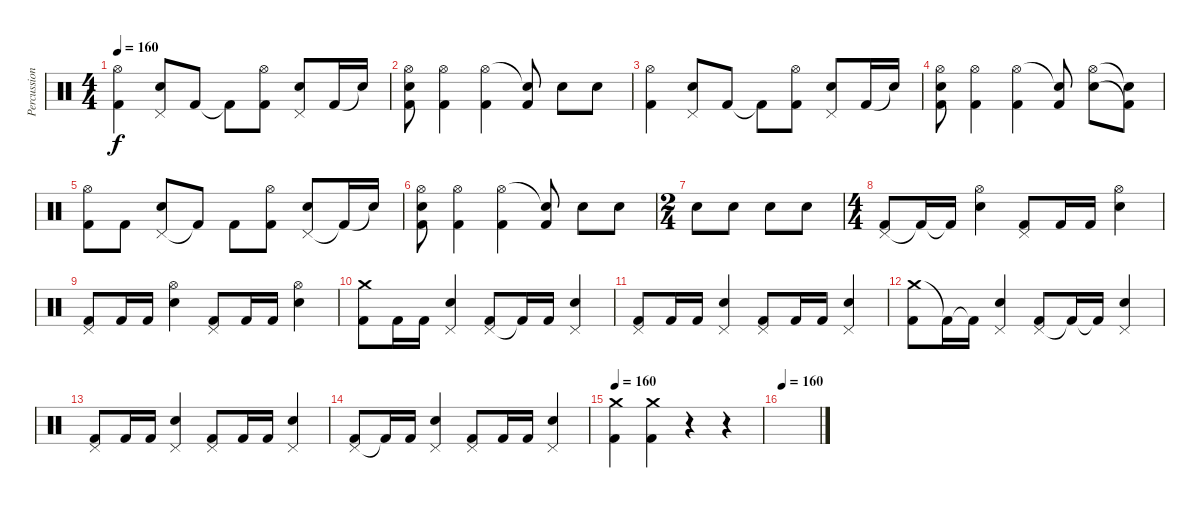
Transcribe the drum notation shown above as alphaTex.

\track ("Percussion" "Percussion") {instrument percussion}
\staff {score}
\articulation defaults
\ts (4 4)
\tempo 160
\clef neutral
\ks c
("Hi-Hat (open)" "Kick (hit) 2").4{dy f} ("Pedal Hi-Hat (hit)" "Snare (hit) 2").8 "Kick (hit) 2".8 "Kick (hit) 2"{t}.8 ("Hi-Hat (open)" "Kick (hit) 2").8 ("Pedal Hi-Hat (hit)" "Snare (hit) 2").8 "Kick (hit) 2".16 "Snare (hit)"{t}.16 |
("Kick (hit) 2" "Hi-Hat (open)" "Snare (hit) 2").8 ("Hi-Hat (open)" "Kick (hit) 2").4 ("Hi-Hat (open)" "Kick (hit) 2").4 ("Snare (hit)"{t} "Kick (hit) 2").8 "Snare (hit) 2".8 "Snare (hit) 2".8 |
("Hi-Hat (open)" "Kick (hit) 2").4 ("Pedal Hi-Hat (hit)" "Snare (hit) 2").8 "Kick (hit) 2".8 "Kick (hit) 2"{t}.8 ("Hi-Hat (open)" "Kick (hit) 2").8 ("Pedal Hi-Hat (hit)" "Snare (hit) 2").8 "Kick (hit) 2".16 "Snare (hit)"{t}.16 |
("Kick (hit) 2" "Hi-Hat (open)" "Snare (hit) 2").8 ("Hi-Hat (open)" "Kick (hit) 2").4 ("Hi-Hat (open)" "Kick (hit) 2").4 ("Snare (hit)"{t} "Kick (hit) 2").8 ("Hi-Hat (open)" "Snare (hit) 2").8 ("Snare (hit)"{t} "Kick (hit) 2"{t}).8 |
("Hi-Hat (open)" "Kick (hit) 2").8 "Kick (hit) 2".8 ("Pedal Hi-Hat (hit)" "Snare (hit) 2").8 "Kick (hit) 2"{t}.8 "Kick (hit) 2".8 ("Hi-Hat (open)" "Kick (hit) 2").8 ("Pedal Hi-Hat (hit)" "Snare (hit) 2").8 "Kick (hit) 2"{t}.16 "Snare (hit)"{t}.16 |
("Kick (hit) 2" "Hi-Hat (open)" "Snare (hit) 2").8 ("Hi-Hat (open)" "Kick (hit) 2").4 ("Hi-Hat (open)" "Kick (hit) 2").4 ("Snare (hit)"{t} "Kick (hit) 2").8 "Snare (hit) 2".8 "Snare (hit) 2".8 |
\ts (2 4)
"Snare (hit) 2".8 "Snare (hit) 2".8 "Snare (hit) 2".8 "Snare (hit) 2".8 |
\ts (4 4)
("Pedal Hi-Hat (hit)" "Kick (hit) 2").8 "Kick (hit) 2"{t}.16 "Kick (hit) 2"{t}.16 ("Hi-Hat (open)" "Snare (hit) 2").4 ("Pedal Hi-Hat (hit)" "Kick (hit) 2").8 "Kick (hit) 2".16 "Kick (hit) 2".16 ("Hi-Hat (open)" "Snare (hit) 2").4 |
("Pedal Hi-Hat (hit)" "Kick (hit) 2").8 "Kick (hit) 2".16 "Kick (hit) 2".16 ("Hi-Hat (open)" "Snare (hit) 2").4 ("Pedal Hi-Hat (hit)" "Kick (hit) 2").8 "Kick (hit) 2".16 "Kick (hit) 2".16 ("Hi-Hat (open)" "Snare (hit) 2").4 |
("Crash medium (hit)" "Kick (hit) 2").8 "Kick (hit) 2".16 "Kick (hit) 2".16 ("Pedal Hi-Hat (hit)" "Snare (hit) 2").4 ("Pedal Hi-Hat (hit)" "Kick (hit) 2").8 "Kick (hit) 2"{t}.16 "Kick (hit) 2".16 ("Pedal Hi-Hat (hit)" "Snare (hit) 2").4 |
("Pedal Hi-Hat (hit)" "Kick (hit) 2").8 "Kick (hit) 2".16 "Kick (hit) 2".16 ("Pedal Hi-Hat (hit)" "Snare (hit) 2").4 ("Pedal Hi-Hat (hit)" "Kick (hit) 2").8 "Kick (hit) 2".16 "Kick (hit) 2".16 ("Pedal Hi-Hat (hit)" "Snare (hit) 2").4 |
("Crash medium (hit)" "Kick (hit) 2").8 "Kick (hit) 2"{t}.16 "Kick (hit) 2"{t}.16 ("Pedal Hi-Hat (hit)" "Snare (hit) 2").4 ("Pedal Hi-Hat (hit)" "Kick (hit) 2").8 "Kick (hit) 2"{t}.16 "Kick (hit) 2"{t}.16 ("Pedal Hi-Hat (hit)" "Snare (hit) 2").4 |
("Pedal Hi-Hat (hit)" "Kick (hit) 2").8 "Kick (hit) 2".16 "Kick (hit) 2".16 ("Pedal Hi-Hat (hit)" "Snare (hit) 2").4 ("Pedal Hi-Hat (hit)" "Kick (hit) 2").8 "Kick (hit) 2".16 "Kick (hit) 2".16 ("Pedal Hi-Hat (hit)" "Snare (hit) 2").4 |
("Pedal Hi-Hat (hit)" "Kick (hit) 2").8 "Kick (hit) 2"{t}.16 "Kick (hit) 2".16 ("Pedal Hi-Hat (hit)" "Snare (hit) 2").4 ("Pedal Hi-Hat (hit)" "Kick (hit) 2").8 "Kick (hit) 2".16 "Kick (hit) 2".16 ("Pedal Hi-Hat (hit)" "Snare (hit) 2").4 |
\tempo 160
("Crash medium (hit)" "Kick (hit) 2").4 ("Crash medium (hit)" "Kick (hit) 2").4 r.4 r.4 |
\tempo 160
